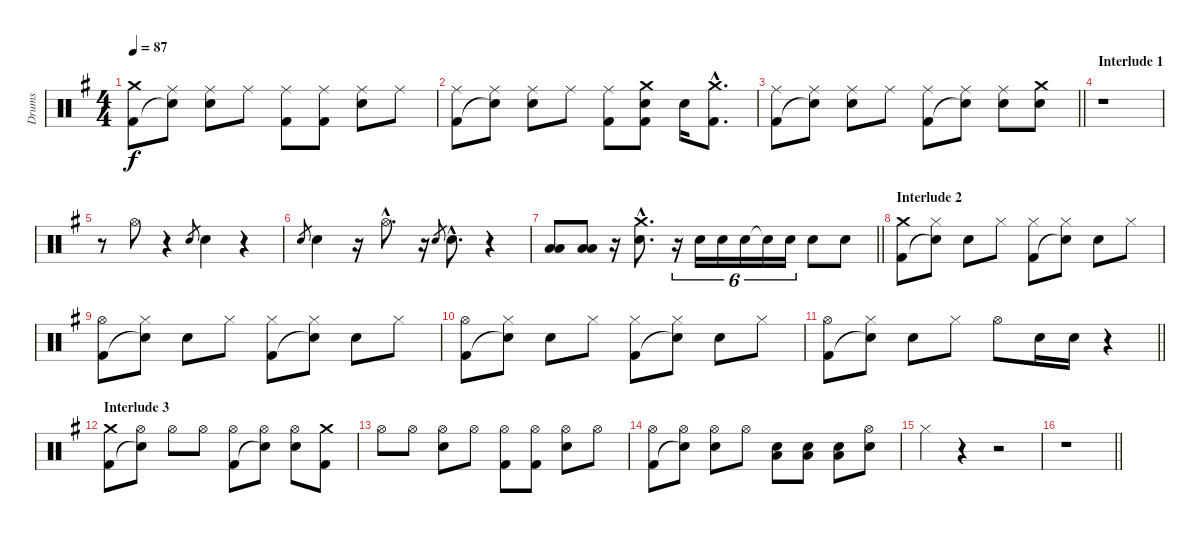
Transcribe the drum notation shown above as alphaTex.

\track ("Drums" "Drums") {instrument percussion}
\staff {score}
\articulation defaults
\ts (4 4)
\tempo 87
\clef neutral
\ks g
("Crash medium (hit)" "Kick (hit) 2").8{dy f} ("Ride (middle)" "Snare (hit)"{t}).8 ("Ride (middle)" "Electric Snare (hit)").8 "Ride (middle)".8 ("Ride (middle)" "Kick (hit) 2").8 ("Ride (middle)" "Kick (hit) 2").8 ("Ride (middle)" "Electric Snare (hit)").8 "Ride (middle)".8 |
("Ride (middle)" "Kick (hit) 2").8 ("Ride (middle)" "Snare (hit)"{t}).8 ("Ride (middle)" "Electric Snare (hit)").8 "Ride (middle)".8 ("Ride (middle)" "Kick (hit) 2").8 ("Crash medium (hit)" "Electric Snare (hit)" "Kick (hit) 2").8 "Electric Snare (hit)".16 ("Crash medium (hit)"{hac} "Kick (hit) 2"{hac}).8{d} |
\barLineRight lightlight
("Ride (middle)" "Kick (hit) 2").8 ("Ride (middle)" "Snare (hit)"{t}).8 ("Ride (middle)" "Electric Snare (hit)").8 "Ride (middle)".8 ("Ride (middle)" "Kick (hit) 2").8 ("Ride (middle)" "Snare (hit)"{t}).8 ("Ride (middle)" "Electric Snare (hit)").8 ("Crash medium (hit)" "Electric Snare (hit)").8 |
\section ("" "Interlude 1")
r.1 |
r.8 "Hi-Hat (open)".8 r.4 "Electric Snare (hit)".8{gr} "Electric Snare (hit)".4 r.4 |
"Electric Snare (hit)".8{gr} "Electric Snare (hit)".4 r.16 "Hi-Hat (open)"{hac}.8{d} r.16 "Electric Snare (hit)".8{gr} "Electric Snare (hit)"{hac}.8{d} r.4 |
\barLineRight lightlight
("Low Tom (hit)" "Low Floor Tom (hit)").8 ("Low Tom (hit)" "Low Floor Tom (hit)").8 r.16 ("Crash medium (hit)"{hac} "Electric Snare (hit)"{hac}).8{d} r.16{tu (6 4)} "Electric Snare (hit)".16{tu (6 4)} "Electric Snare (hit)".16{tu (6 4)} "Electric Snare (hit)".16{tu (6 4)} "Snare (hit)"{t}.16{tu (6 4)} "Electric Snare (hit)".16{tu (6 4)} "Electric Snare (hit)".8 "Electric Snare (hit)".8 |
\section ("" "Interlude 2")
("Crash medium (hit)" "Kick (hit) 2").8 ("Hi-Hat (closed)" "Snare (hit)"{t}).8 "Electric Snare (hit)".8 "Hi-Hat (closed)".8 ("Hi-Hat (closed)" "Kick (hit) 2").8 ("Hi-Hat (closed)" "Snare (hit)"{t}).8 "Electric Snare (hit)".8 "Hi-Hat (closed)".8 |
("Hi-Hat (open)" "Kick (hit) 2").8 ("Hi-Hat (closed)" "Snare (hit)"{t}).8 "Electric Snare (hit)".8 "Hi-Hat (closed)".8 ("Hi-Hat (closed)" "Kick (hit) 2").8 ("Hi-Hat (closed)" "Snare (hit)"{t}).8 "Electric Snare (hit)".8 "Hi-Hat (closed)".8 |
("Hi-Hat (open)" "Kick (hit) 2").8 ("Hi-Hat (closed)" "Snare (hit)"{t}).8 "Electric Snare (hit)".8 "Hi-Hat (closed)".8 ("Hi-Hat (closed)" "Kick (hit) 2").8 ("Hi-Hat (closed)" "Snare (hit)"{t}).8 "Electric Snare (hit)".8 "Hi-Hat (closed)".8 |
\barLineRight lightlight
("Hi-Hat (open)" "Kick (hit) 2").8 ("Hi-Hat (closed)" "Snare (hit)"{t}).8 "Electric Snare (hit)".8 "Hi-Hat (closed)".8 "Hi-Hat (open)".8 "Electric Snare (hit)".16 "Electric Snare (hit)".16 r.4 |
\section ("" "Interlude 3")
("Crash medium (hit)" "Kick (hit) 2").8 ("Hi-Hat (open)" "Snare (hit)"{t}).8 "Hi-Hat (open)".8 "Hi-Hat (open)".8 ("Hi-Hat (open)" "Kick (hit) 2").8 ("Hi-Hat (open)" "Snare (hit)"{t}).8 ("Hi-Hat (open)" "Electric Snare (hit)").8 ("Crash medium (hit)" "Kick (hit) 2").8 |
"Hi-Hat (open)".8 "Hi-Hat (open)".8 ("Hi-Hat (open)" "Electric Snare (hit)").8 "Hi-Hat (open)".8 ("Hi-Hat (open)" "Kick (hit) 2").8 ("Hi-Hat (open)" "Kick (hit) 2").8 ("Hi-Hat (open)" "Electric Snare (hit)").8 "Hi-Hat (open)".8 |
("Hi-Hat (open)" "Kick (hit) 2").8 ("Hi-Hat (open)" "Snare (hit)"{t}).8 ("Hi-Hat (open)" "Electric Snare (hit)").8 "Hi-Hat (open)".8 ("Electric Snare (hit)" "Low Tom (hit)").8 ("Electric Snare (hit)" "Low Tom (hit)").8 ("Electric Snare (hit)" "Low Tom (hit)").8 ("Hi-Hat (open)" "Electric Snare (hit)").8 |
"Hi-Hat (closed)".4 r.4 r.2 |
\barLineRight lightlight
r.1
